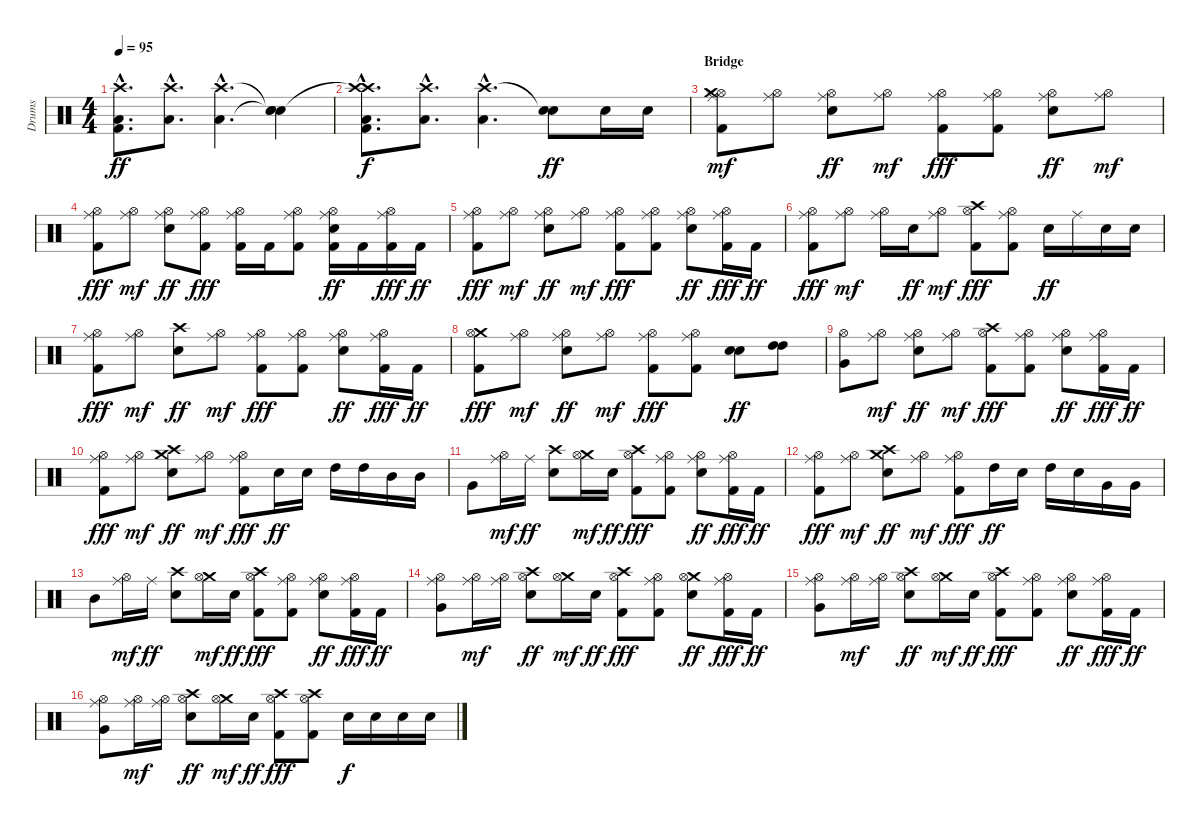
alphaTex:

\track ("Drums" "Drums") {instrument percussion}
\staff {score}
\articulation defaults
\ts (4 4)
\tempo 95
\clef neutral
\ks c
("Crash high (hit)"{hac} "Low Tom (hit)"{hac} "Kick (hit) 2"{hac}).8{d dy ff} ("Crash high (hit)"{hac} "Low Tom (hit)"{hac}).8{d} ("Crash high (hit)"{hac} "Low Tom (hit)"{hac}).4{d} ("Snare (hit)"{t} "Snare (hit)"{t} "Electric Snare (hit)").4 |
("Crash high (hit)"{hac t} "Crash high (hit)"{hac} "Low Tom (hit)"{hac} "Kick (hit) 2"{hac}).8{d dy f} ("Crash high (hit)"{hac} "Low Tom (hit)"{hac}).8{d} ("Crash high (hit)"{hac} "Low Tom (hit)"{hac}).4{d} ("Snare (hit)"{t} "Electric Snare (hit)").8{dy ff} "Electric Snare (hit)".16 "Electric Snare (hit)".16 |
\section ("" "Bridge")
("Ride (middle)" "Hi-Hat (open)" "Crash medium (hit)" "Kick (hit) 2").8{dy mf} ("Ride (middle)" "Hi-Hat (open)").8 ("Ride (middle)" "Hi-Hat (open)" "Electric Snare (hit)").8{dy ff} ("Ride (middle)" "Hi-Hat (open)").8{dy mf} ("Ride (middle)" "Hi-Hat (open)" "Kick (hit) 2").8{dy fff} ("Ride (middle)" "Hi-Hat (open)" "Kick (hit) 2").8 ("Ride (middle)" "Hi-Hat (open)" "Electric Snare (hit)").8{dy ff} ("Ride (middle)" "Hi-Hat (open)").8{dy mf} |
("Ride (middle)" "Hi-Hat (open)" "Kick (hit) 2").8{dy fff} ("Ride (middle)" "Hi-Hat (open)").8{dy mf} ("Ride (middle)" "Hi-Hat (open)" "Electric Snare (hit)").8{dy ff} ("Ride (middle)" "Hi-Hat (open)" "Kick (hit) 2").8{dy fff} ("Ride (middle)" "Hi-Hat (open)" "Kick (hit) 2").16 "Kick (hit) 2".16 ("Ride (middle)" "Hi-Hat (open)" "Kick (hit) 2").8 ("Ride (middle)" "Hi-Hat (open)" "Electric Snare (hit)" "Kick (hit) 2").16{dy ff} "Kick (hit) 2".16 ("Ride (middle)" "Hi-Hat (open)" "Kick (hit) 2").16{dy fff} "Kick (hit) 2".16{dy ff} |
("Ride (middle)" "Hi-Hat (open)" "Kick (hit) 2").8{dy fff} ("Ride (middle)" "Hi-Hat (open)").8{dy mf} ("Ride (middle)" "Hi-Hat (open)" "Electric Snare (hit)").8{dy ff} ("Ride (middle)" "Hi-Hat (open)").8{dy mf} ("Ride (middle)" "Hi-Hat (open)" "Kick (hit) 2").8{dy fff} ("Ride (middle)" "Hi-Hat (open)" "Kick (hit) 2").8 ("Ride (middle)" "Hi-Hat (open)" "Electric Snare (hit)").8{dy ff} ("Ride (middle)" "Hi-Hat (open)" "Kick (hit) 2").16{dy fff} "Kick (hit) 2".16{dy ff} |
("Ride (middle)" "Hi-Hat (open)" "Kick (hit) 2").8{dy fff} ("Ride (middle)" "Hi-Hat (open)").8{dy mf} ("Ride (middle)" "Hi-Hat (open)").16 "Electric Snare (hit)".16{dy ff} ("Ride (middle)" "Hi-Hat (open)").8{dy mf} ("Crash high (hit)" "Hi-Hat (open)" "Kick (hit) 2").8{dy fff} ("Ride (middle)" "Hi-Hat (open)" "Kick (hit) 2").8 "Electric Snare (hit)".16{dy ff} "Ride (middle)".16 "Electric Snare (hit)".16 "Electric Snare (hit)".16 |
("Ride (middle)" "Hi-Hat (open)" "Kick (hit) 2").8{dy fff} ("Ride (middle)" "Hi-Hat (open)").8{dy mf} ("Crash high (hit)" "Electric Snare (hit)").8{dy ff} ("Ride (middle)" "Hi-Hat (open)").8{dy mf} ("Ride (middle)" "Hi-Hat (open)" "Kick (hit) 2").8{dy fff} ("Ride (middle)" "Hi-Hat (open)" "Kick (hit) 2").8 ("Ride (middle)" "Hi-Hat (open)" "Electric Snare (hit)").8{dy ff} ("Ride (middle)" "Hi-Hat (open)" "Kick (hit) 2").16{dy fff} "Kick (hit) 2".16{dy ff} |
("Crash medium (hit)" "Hi-Hat (open)" "Kick (hit) 2").8{dy fff} ("Ride (middle)" "Hi-Hat (open)").8{dy mf} ("Ride (middle)" "Hi-Hat (open)" "Electric Snare (hit)").8{dy ff} ("Ride (middle)" "Hi-Hat (open)").8{dy mf} ("Ride (middle)" "Hi-Hat (open)" "Kick (hit) 2").8{dy fff} ("Ride (middle)" "Hi-Hat (open)" "Kick (hit) 2").8 ("Electric Snare (hit)" "Electric Snare (hit)").8{dy ff} ("High Tom (hit)" "High Tom (hit)").8 |
("Hi-Hat (open)" "Very Low Tom (hit)").8 ("Ride (middle)" "Hi-Hat (open)").8{dy mf} ("Ride (middle)" "Hi-Hat (open)" "Electric Snare (hit)").8{dy ff} ("Ride (middle)" "Hi-Hat (open)").8{dy mf} ("Crash high (hit)" "Hi-Hat (open)" "Kick (hit) 2").8{dy fff} ("Ride (middle)" "Hi-Hat (open)" "Kick (hit) 2").8 ("Ride (middle)" "Hi-Hat (open)" "Electric Snare (hit)").8{dy ff} ("Ride (middle)" "Hi-Hat (open)" "Kick (hit) 2").16{dy fff} "Kick (hit) 2".16{dy ff} |
("Ride (middle)" "Hi-Hat (open)" "Kick (hit) 2").8{dy fff} ("Ride (middle)" "Hi-Hat (open)").8{dy mf} ("Crash medium (hit)" "Crash high (hit)" "Electric Snare (hit)").8{dy ff} ("Ride (middle)" "Hi-Hat (open)").8{dy mf} ("Ride (middle)" "Hi-Hat (open)" "Kick (hit) 2").8{dy fff} "Electric Snare (hit)".16{dy ff} "Electric Snare (hit)".16 "High Tom (hit)".16 "High Tom (hit)".16 "Mid Tom (hit)".16 "Mid Tom (hit)".16 |
"Very Low Tom (hit)".8 ("Ride (middle)" "Hi-Hat (open)").16{dy mf} "Ride (middle)".16{dy ff} ("Crash high (hit)" "Electric Snare (hit)").8 ("Crash medium (hit)" "Hi-Hat (open)").16{dy mf} "Electric Snare (hit)".16{dy ff} ("Crash high (hit)" "Hi-Hat (open)" "Kick (hit) 2").8{dy fff} ("Ride (middle)" "Hi-Hat (open)" "Kick (hit) 2").8 ("Ride (middle)" "Hi-Hat (open)" "Electric Snare (hit)").8{dy ff} ("Ride (middle)" "Hi-Hat (open)" "Kick (hit) 2").16{dy fff} "Kick (hit) 2".16{dy ff} |
("Ride (middle)" "Hi-Hat (open)" "Kick (hit) 2").8{dy fff} ("Ride (middle)" "Hi-Hat (open)").8{dy mf} ("Crash medium (hit)" "Crash high (hit)" "Electric Snare (hit)").8{dy ff} ("Ride (middle)" "Hi-Hat (open)").8{dy mf} ("Ride (middle)" "Hi-Hat (open)" "Kick (hit) 2").8{dy fff} "High Tom (hit)".16{dy ff} "Electric Snare (hit)".16 "High Tom (hit)".16 "Electric Snare (hit)".16 "Very Low Tom (hit)".16 "Very Low Tom (hit)".16 |
"Mid Tom (hit)".8 ("Ride (middle)" "Hi-Hat (open)").16{dy mf} "Ride (middle)".16{dy ff} ("Crash high (hit)" "Electric Snare (hit)").8 ("Crash medium (hit)" "Hi-Hat (open)").16{dy mf} "Electric Snare (hit)".16{dy ff} ("Crash high (hit)" "Hi-Hat (open)" "Kick (hit) 2").8{dy fff} ("Ride (middle)" "Hi-Hat (open)" "Kick (hit) 2").8 ("Ride (middle)" "Hi-Hat (open)" "Electric Snare (hit)").8{dy ff} ("Ride (middle)" "Hi-Hat (open)" "Kick (hit) 2").16{dy fff} "Kick (hit) 2".16{dy ff} |
("Ride (middle)" "Hi-Hat (open)" "Very Low Tom (hit)").8 ("Ride (middle)" "Hi-Hat (open)").16{dy mf} ("Ride (middle)" "Hi-Hat (open)").16 ("Crash high (hit)" "Hi-Hat (open)" "Electric Snare (hit)").8{dy ff} ("Crash medium (hit)" "Hi-Hat (open)").16{dy mf} "Electric Snare (hit)".16{dy ff} ("Crash high (hit)" "Hi-Hat (open)" "Kick (hit) 2").8{dy fff} ("Ride (middle)" "Hi-Hat (open)" "Kick (hit) 2").8 ("Crash medium (hit)" "Hi-Hat (open)" "Electric Snare (hit)").8{dy ff} ("Ride (middle)" "Hi-Hat (open)" "Kick (hit) 2").16{dy fff} "Kick (hit) 2".16{dy ff} |
("Ride (middle)" "Hi-Hat (open)" "Very Low Tom (hit)").8 ("Ride (middle)" "Hi-Hat (open)").16{dy mf} ("Ride (middle)" "Hi-Hat (open)").16 ("Crash high (hit)" "Hi-Hat (open)" "Electric Snare (hit)").8{dy ff} ("Crash medium (hit)" "Hi-Hat (open)").16{dy mf} "Electric Snare (hit)".16{dy ff} ("Crash high (hit)" "Hi-Hat (open)" "Kick (hit) 2").8{dy fff} ("Ride (middle)" "Hi-Hat (open)" "Kick (hit) 2").8 ("Ride (middle)" "Hi-Hat (open)" "Electric Snare (hit)").8{dy ff} ("Ride (middle)" "Hi-Hat (open)" "Kick (hit) 2").16{dy fff} "Kick (hit) 2".16{dy ff} |
("Ride (middle)" "Hi-Hat (open)" "Very Low Tom (hit)").8 ("Ride (middle)" "Hi-Hat (open)").16{dy mf} ("Ride (middle)" "Hi-Hat (open)").16 ("Crash high (hit)" "Hi-Hat (open)" "Electric Snare (hit)").8{dy ff} ("Crash medium (hit)" "Hi-Hat (open)").16{dy mf} "Electric Snare (hit)".16{dy ff} ("Crash high (hit)" "Hi-Hat (open)" "Kick (hit) 2").8{dy fff} ("Crash high (hit)" "Hi-Hat (open)" "Kick (hit) 2").8 "Electric Snare (hit)".16{dy f} "Electric Snare (hit)".16 "Electric Snare (hit)".16 "Electric Snare (hit)".16
